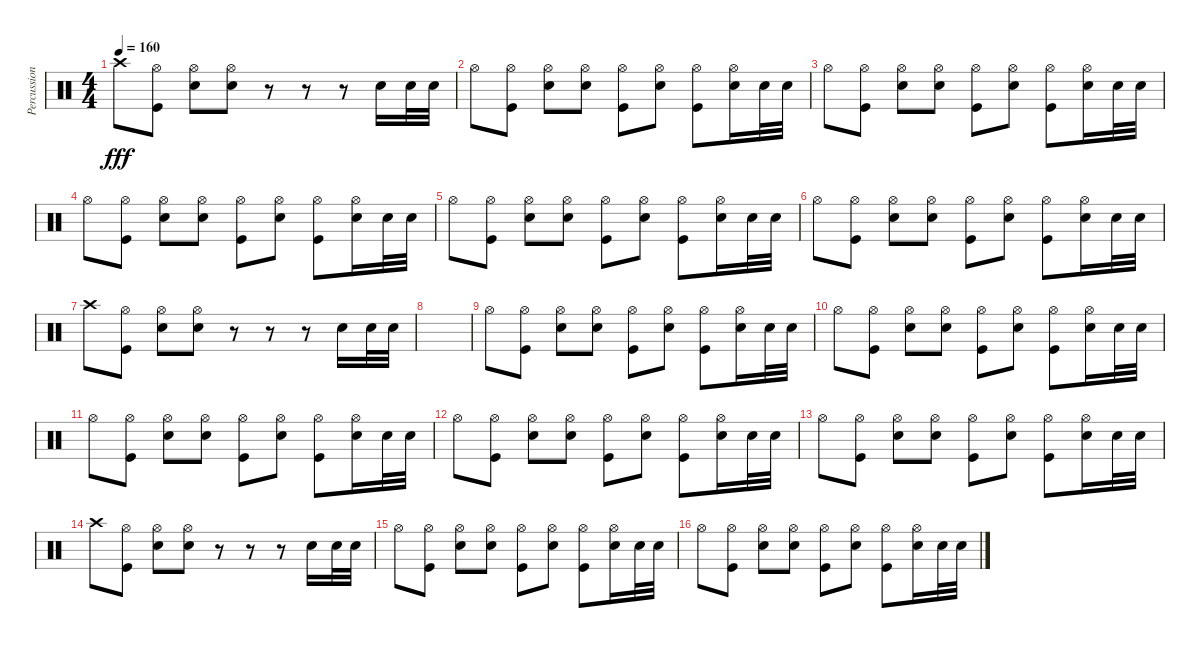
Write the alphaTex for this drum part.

\track ("Percussion" "Percussion") {instrument percussion}
\staff {score}
\articulation defaults
\ts (4 4)
\tempo 160
\clef neutral
\ks c "Crash high (hit)".8{dy fff}
("Kick (hit)" "Hi-Hat (open)").8 ("Snare (hit) 2" "Hi-Hat (open)").8 ("Snare (hit) 2" "Hi-Hat (open)").8 r.8 r.8 r.8 "Snare (hit) 2".16 "Snare (hit) 2".32 "Snare (hit) 2".32 |
"Hi-Hat (open)".8 ("Kick (hit)" "Hi-Hat (open)").8 ("Snare (hit) 2" "Hi-Hat (open)").8 ("Snare (hit) 2" "Hi-Hat (open)").8 ("Kick (hit)" "Hi-Hat (open)").8 ("Snare (hit) 2" "Hi-Hat (open)").8 ("Kick (hit)" "Hi-Hat (open)").8 ("Snare (hit) 2" "Hi-Hat (open)").16 "Snare (hit) 2".32 "Snare (hit) 2".32 |
"Hi-Hat (open)".8 ("Kick (hit)" "Hi-Hat (open)").8 ("Snare (hit) 2" "Hi-Hat (open)").8 ("Snare (hit) 2" "Hi-Hat (open)").8 ("Kick (hit)" "Hi-Hat (open)").8 ("Snare (hit) 2" "Hi-Hat (open)").8 ("Kick (hit)" "Hi-Hat (open)").8 ("Snare (hit) 2" "Hi-Hat (open)").16 "Snare (hit) 2".32 "Snare (hit) 2".32 |
"Hi-Hat (open)".8 ("Kick (hit)" "Hi-Hat (open)").8 ("Snare (hit) 2" "Hi-Hat (open)").8 ("Snare (hit) 2" "Hi-Hat (open)").8 ("Kick (hit)" "Hi-Hat (open)").8 ("Snare (hit) 2" "Hi-Hat (open)").8 ("Kick (hit)" "Hi-Hat (open)").8 ("Snare (hit) 2" "Hi-Hat (open)").16 "Snare (hit) 2".32 "Snare (hit) 2".32 |
"Hi-Hat (open)".8 ("Kick (hit)" "Hi-Hat (open)").8 ("Snare (hit) 2" "Hi-Hat (open)").8 ("Snare (hit) 2" "Hi-Hat (open)").8 ("Kick (hit)" "Hi-Hat (open)").8 ("Snare (hit) 2" "Hi-Hat (open)").8 ("Kick (hit)" "Hi-Hat (open)").8 ("Snare (hit) 2" "Hi-Hat (open)").16 "Snare (hit) 2".32 "Snare (hit) 2".32 |
"Hi-Hat (open)".8 ("Kick (hit)" "Hi-Hat (open)").8 ("Snare (hit) 2" "Hi-Hat (open)").8 ("Snare (hit) 2" "Hi-Hat (open)").8 ("Kick (hit)" "Hi-Hat (open)").8 ("Snare (hit) 2" "Hi-Hat (open)").8 ("Kick (hit)" "Hi-Hat (open)").8 ("Snare (hit) 2" "Hi-Hat (open)").16 "Snare (hit) 2".32 "Snare (hit) 2".32 |
"Crash high (hit)".8 ("Kick (hit)" "Hi-Hat (open)").8 ("Snare (hit) 2" "Hi-Hat (open)").8 ("Snare (hit) 2" "Hi-Hat (open)").8 r.8 r.8 r.8 "Snare (hit) 2".16 "Snare (hit) 2".32 "Snare (hit) 2".32 |
|
"Hi-Hat (open)".8 ("Kick (hit)" "Hi-Hat (open)").8 ("Snare (hit) 2" "Hi-Hat (open)").8 ("Snare (hit) 2" "Hi-Hat (open)").8 ("Kick (hit)" "Hi-Hat (open)").8 ("Snare (hit) 2" "Hi-Hat (open)").8 ("Kick (hit)" "Hi-Hat (open)").8 ("Snare (hit) 2" "Hi-Hat (open)").16 "Snare (hit) 2".32 "Snare (hit) 2".32 |
"Hi-Hat (open)".8 ("Kick (hit)" "Hi-Hat (open)").8 ("Snare (hit) 2" "Hi-Hat (open)").8 ("Snare (hit) 2" "Hi-Hat (open)").8 ("Kick (hit)" "Hi-Hat (open)").8 ("Snare (hit) 2" "Hi-Hat (open)").8 ("Kick (hit)" "Hi-Hat (open)").8 ("Snare (hit) 2" "Hi-Hat (open)").16 "Snare (hit) 2".32 "Snare (hit) 2".32 |
"Hi-Hat (open)".8 ("Kick (hit)" "Hi-Hat (open)").8 ("Snare (hit) 2" "Hi-Hat (open)").8 ("Snare (hit) 2" "Hi-Hat (open)").8 ("Kick (hit)" "Hi-Hat (open)").8 ("Snare (hit) 2" "Hi-Hat (open)").8 ("Kick (hit)" "Hi-Hat (open)").8 ("Snare (hit) 2" "Hi-Hat (open)").16 "Snare (hit) 2".32 "Snare (hit) 2".32 |
"Hi-Hat (open)".8 ("Kick (hit)" "Hi-Hat (open)").8 ("Snare (hit) 2" "Hi-Hat (open)").8 ("Snare (hit) 2" "Hi-Hat (open)").8 ("Kick (hit)" "Hi-Hat (open)").8 ("Snare (hit) 2" "Hi-Hat (open)").8 ("Kick (hit)" "Hi-Hat (open)").8 ("Snare (hit) 2" "Hi-Hat (open)").16 "Snare (hit) 2".32 "Snare (hit) 2".32 |
"Hi-Hat (open)".8 ("Kick (hit)" "Hi-Hat (open)").8 ("Snare (hit) 2" "Hi-Hat (open)").8 ("Snare (hit) 2" "Hi-Hat (open)").8 ("Kick (hit)" "Hi-Hat (open)").8 ("Snare (hit) 2" "Hi-Hat (open)").8 ("Kick (hit)" "Hi-Hat (open)").8 ("Snare (hit) 2" "Hi-Hat (open)").16 "Snare (hit) 2".32 "Snare (hit) 2".32 |
"Crash high (hit)".8 ("Kick (hit)" "Hi-Hat (open)").8 ("Snare (hit) 2" "Hi-Hat (open)").8 ("Snare (hit) 2" "Hi-Hat (open)").8 r.8 r.8 r.8 "Snare (hit) 2".16 "Snare (hit) 2".32 "Snare (hit) 2".32 |
"Hi-Hat (open)".8 ("Kick (hit)" "Hi-Hat (open)").8 ("Snare (hit) 2" "Hi-Hat (open)").8 ("Snare (hit) 2" "Hi-Hat (open)").8 ("Kick (hit)" "Hi-Hat (open)").8 ("Snare (hit) 2" "Hi-Hat (open)").8 ("Kick (hit)" "Hi-Hat (open)").8 ("Snare (hit) 2" "Hi-Hat (open)").16 "Snare (hit) 2".32 "Snare (hit) 2".32 |
"Hi-Hat (open)".8 ("Kick (hit)" "Hi-Hat (open)").8 ("Snare (hit) 2" "Hi-Hat (open)").8 ("Snare (hit) 2" "Hi-Hat (open)").8 ("Kick (hit)" "Hi-Hat (open)").8 ("Snare (hit) 2" "Hi-Hat (open)").8 ("Kick (hit)" "Hi-Hat (open)").8 ("Snare (hit) 2" "Hi-Hat (open)").16 "Snare (hit) 2".32 "Snare (hit) 2".32
